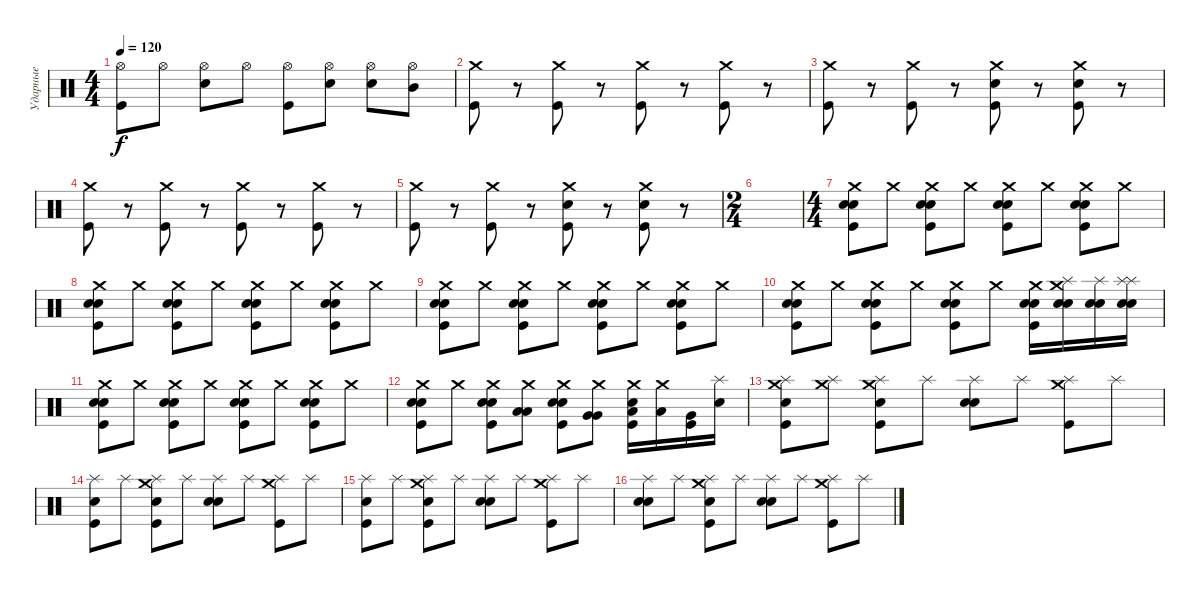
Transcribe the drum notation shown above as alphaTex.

\track ("Ударные" "Ударные") {instrument percussion}
\staff {score}
\articulation defaults
\ts (4 4)
\tempo 120
\clef neutral
\ks c
("Hi-Hat (open)" "Kick (hit)").8{dy f} "Hi-Hat (open)".8 ("Hi-Hat (open)" "Snare (hit) 2").8 "Hi-Hat (open)".8 ("Hi-Hat (open)" "Kick (hit)").8 ("Hi-Hat (open)" "Electric Snare (hit)").8 ("Hi-Hat (open)" "Snare (hit) 2").8 ("Hi-Hat (open)" "Mid Tom (hit)").8 |
("Crash medium (hit)" "Kick (hit)").8 r.8 ("Crash medium (hit)" "Kick (hit)").8 r.8 ("Crash medium (hit)" "Kick (hit)").8 r.8 ("Crash medium (hit)" "Kick (hit)").8 r.8 |
("Crash medium (hit)" "Kick (hit)").8 r.8 ("Crash medium (hit)" "Kick (hit)").8 r.8 ("Crash medium (hit)" "Electric Snare (hit)" "Kick (hit)").8 r.8 ("Crash medium (hit)" "Snare (hit) 2" "Kick (hit)").8 r.8 |
("Crash medium (hit)" "Kick (hit)").8 r.8 ("Crash medium (hit)" "Kick (hit)").8 r.8 ("Crash medium (hit)" "Kick (hit)").8 r.8 ("Crash medium (hit)" "Kick (hit)").8 r.8 |
("Crash medium (hit)" "Kick (hit)").8 r.8 ("Crash medium (hit)" "Kick (hit)").8 r.8 ("Crash medium (hit)" "Electric Snare (hit)" "Kick (hit)").8 r.8 ("Crash medium (hit)" "Snare (hit) 2" "Kick (hit)").8 r.8 |
\ts (2 4)
|
\ts (4 4)
("Crash medium (hit)" "Electric Snare (hit)" "Electric Snare (hit)" "Kick (hit)").8 "Crash medium (hit)".8 ("Crash medium (hit)" "Electric Snare (hit)" "Electric Snare (hit)" "Kick (hit)").8 "Crash medium (hit)".8 ("Crash medium (hit)" "Electric Snare (hit)" "Electric Snare (hit)" "Kick (hit)").8 "Crash medium (hit)".8 ("Crash medium (hit)" "Electric Snare (hit)" "Electric Snare (hit)" "Kick (hit)").8 "Crash medium (hit)".8 |
("Crash medium (hit)" "Electric Snare (hit)" "Electric Snare (hit)" "Kick (hit)").8 "Crash medium (hit)".8 ("Crash medium (hit)" "Electric Snare (hit)" "Electric Snare (hit)" "Kick (hit)").8 "Crash medium (hit)".8 ("Crash medium (hit)" "Electric Snare (hit)" "Electric Snare (hit)" "Kick (hit)").8 "Crash medium (hit)".8 ("Crash medium (hit)" "Electric Snare (hit)" "Electric Snare (hit)" "Kick (hit)").8 "Crash medium (hit)".8 |
("Crash medium (hit)" "Electric Snare (hit)" "Electric Snare (hit)" "Kick (hit)").8 "Crash medium (hit)".8 ("Crash medium (hit)" "Electric Snare (hit)" "Electric Snare (hit)" "Kick (hit)").8 "Crash medium (hit)".8 ("Crash medium (hit)" "Electric Snare (hit)" "Electric Snare (hit)" "Kick (hit)").8 "Crash medium (hit)".8 ("Crash medium (hit)" "Electric Snare (hit)" "Electric Snare (hit)" "Kick (hit)").8 "Crash medium (hit)".8 |
("Crash medium (hit)" "Electric Snare (hit)" "Electric Snare (hit)" "Kick (hit)").8 "Crash medium (hit)".8 ("Crash medium (hit)" "Electric Snare (hit)" "Electric Snare (hit)" "Kick (hit)").8 "Crash medium (hit)".8 ("Crash medium (hit)" "Electric Snare (hit)" "Electric Snare (hit)" "Kick (hit)").8 "Crash medium (hit)".8 ("Crash medium (hit)" "Electric Snare (hit)" "Electric Snare (hit)" "Kick (hit)").16 ("Crash medium (hit)" "Splash (hit)" "Snare (hit) 2" "Snare (hit) 2").16 ("Splash (hit)" "Snare (hit) 2" "Snare (hit) 2").16 ("Splash (hit)" "Splash (hit)" "Electric Snare (hit)" "Electric Snare (hit)").16 |
("Crash medium (hit)" "Electric Snare (hit)" "Electric Snare (hit)" "Kick (hit)").8 "Crash medium (hit)".8 ("Crash medium (hit)" "Electric Snare (hit)" "Electric Snare (hit)" "Kick (hit)").8 "Crash medium (hit)".8 ("Crash medium (hit)" "Electric Snare (hit)" "Electric Snare (hit)" "Kick (hit)").8 "Crash medium (hit)".8 ("Crash medium (hit)" "Electric Snare (hit)" "Electric Snare (hit)" "Kick (hit)").8 "Crash medium (hit)".8 |
("Crash medium (hit)" "Electric Snare (hit)" "Electric Snare (hit)" "Kick (hit)").8 "Crash medium (hit)".8 ("Crash medium (hit)" "Electric Snare (hit)" "Electric Snare (hit)" "Kick (hit)").8 ("Crash medium (hit)" "Low Floor Tom (hit)" "Low Floor Tom (hit)").8 ("Crash medium (hit)" "Electric Snare (hit)" "Electric Snare (hit)" "Kick (hit)").8 ("Crash medium (hit)" "Very Low Tom (hit)" "Very Low Tom (hit)").8 ("Crash medium (hit)" "Low Floor Tom (hit)" "Electric Snare (hit)" "Kick (hit)").16 ("Crash medium (hit)" "Low Floor Tom (hit)").16 ("Very Low Tom (hit)" "Kick (hit)").16 ("Splash (hit)" "Electric Snare (hit)").16 |
("Splash (hit)" "Crash medium (hit)" "Electric Snare (hit)" "Kick (hit)").8 ("Splash (hit)" "Crash medium (hit)").8 ("Crash medium (hit)" "Splash (hit)" "Electric Snare (hit)" "Kick (hit)").8 "Splash (hit)".8 ("Splash (hit)" "Electric Snare (hit)" "Electric Snare (hit)").8 "Splash (hit)".8 ("Crash medium (hit)" "Splash (hit)" "Kick (hit)").8 "Splash (hit)".8 |
("Splash (hit)" "Electric Snare (hit)" "Kick (hit)").8 "Splash (hit)".8 ("Crash medium (hit)" "Splash (hit)" "Electric Snare (hit)" "Kick (hit)").8 "Splash (hit)".8 ("Splash (hit)" "Electric Snare (hit)" "Electric Snare (hit)").8 "Splash (hit)".8 ("Crash medium (hit)" "Splash (hit)" "Kick (hit)").8 "Splash (hit)".8 |
("Splash (hit)" "Electric Snare (hit)" "Kick (hit)").8 "Splash (hit)".8 ("Crash medium (hit)" "Splash (hit)" "Electric Snare (hit)" "Kick (hit)").8 "Splash (hit)".8 ("Splash (hit)" "Electric Snare (hit)" "Electric Snare (hit)").8 "Splash (hit)".8 ("Crash medium (hit)" "Splash (hit)" "Kick (hit)").8 "Splash (hit)".8 |
("Splash (hit)" "Electric Snare (hit)" "Electric Snare (hit)").8 "Splash (hit)".8 ("Crash medium (hit)" "Splash (hit)" "Electric Snare (hit)" "Kick (hit)").8 "Splash (hit)".8 ("Splash (hit)" "Electric Snare (hit)" "Electric Snare (hit)").8 "Splash (hit)".8 ("Crash medium (hit)" "Splash (hit)" "Kick (hit)").8 "Splash (hit)".8
